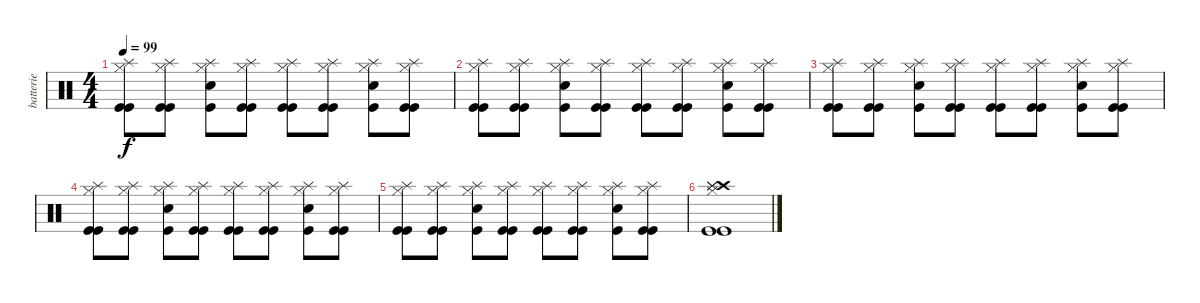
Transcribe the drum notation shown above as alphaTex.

\track ("batterie" "batterie") {instrument percussion}
\staff {score}
\articulation defaults
\ts (4 4)
\tempo 99
\clef neutral
\ks c
("Kick (hit)" "Splash (hit)" "Hi-Hat (closed)" "Kick (hit)").8{dy f} ("Kick (hit)" "Splash (hit)" "Hi-Hat (closed)" "Kick (hit)").8 ("Electric Snare (hit)" "Splash (hit)" "Hi-Hat (closed)" "Kick (hit)").8 ("Kick (hit)" "Splash (hit)" "Hi-Hat (closed)" "Kick (hit)").8 ("Kick (hit)" "Splash (hit)" "Hi-Hat (closed)" "Kick (hit)").8 ("Kick (hit)" "Splash (hit)" "Hi-Hat (closed)" "Kick (hit)").8 ("Electric Snare (hit)" "Splash (hit)" "Hi-Hat (closed)" "Kick (hit)").8 ("Kick (hit)" "Splash (hit)" "Hi-Hat (closed)" "Kick (hit)").8 |
("Kick (hit)" "Splash (hit)" "Hi-Hat (closed)" "Kick (hit)").8 ("Kick (hit)" "Splash (hit)" "Hi-Hat (closed)" "Kick (hit)").8 ("Electric Snare (hit)" "Splash (hit)" "Hi-Hat (closed)" "Kick (hit)").8 ("Kick (hit)" "Splash (hit)" "Hi-Hat (closed)" "Kick (hit)").8 ("Kick (hit)" "Splash (hit)" "Hi-Hat (closed)" "Kick (hit)").8 ("Kick (hit)" "Splash (hit)" "Hi-Hat (closed)" "Kick (hit)").8 ("Electric Snare (hit)" "Splash (hit)" "Hi-Hat (closed)" "Kick (hit)").8 ("Kick (hit)" "Splash (hit)" "Hi-Hat (closed)" "Kick (hit)").8 |
("Kick (hit)" "Splash (hit)" "Hi-Hat (closed)" "Kick (hit)").8 ("Kick (hit)" "Splash (hit)" "Hi-Hat (closed)" "Kick (hit)").8 ("Electric Snare (hit)" "Splash (hit)" "Hi-Hat (closed)" "Kick (hit)").8 ("Kick (hit)" "Splash (hit)" "Hi-Hat (closed)" "Kick (hit)").8 ("Kick (hit)" "Splash (hit)" "Hi-Hat (closed)" "Kick (hit)").8 ("Kick (hit)" "Splash (hit)" "Hi-Hat (closed)" "Kick (hit)").8 ("Electric Snare (hit)" "Splash (hit)" "Hi-Hat (closed)" "Kick (hit)").8 ("Kick (hit)" "Splash (hit)" "Hi-Hat (closed)" "Kick (hit)").8 |
("Kick (hit)" "Splash (hit)" "Hi-Hat (closed)" "Kick (hit)").8 ("Kick (hit)" "Splash (hit)" "Hi-Hat (closed)" "Kick (hit)").8 ("Electric Snare (hit)" "Splash (hit)" "Hi-Hat (closed)" "Kick (hit)").8 ("Kick (hit)" "Splash (hit)" "Hi-Hat (closed)" "Kick (hit)").8 ("Kick (hit)" "Splash (hit)" "Hi-Hat (closed)" "Kick (hit)").8 ("Kick (hit)" "Splash (hit)" "Hi-Hat (closed)" "Kick (hit)").8 ("Electric Snare (hit)" "Splash (hit)" "Hi-Hat (closed)" "Kick (hit)").8 ("Kick (hit)" "Splash (hit)" "Hi-Hat (closed)" "Kick (hit)").8 |
("Kick (hit)" "Splash (hit)" "Hi-Hat (closed)" "Kick (hit)").8 ("Kick (hit)" "Splash (hit)" "Hi-Hat (closed)" "Kick (hit)").8 ("Electric Snare (hit)" "Splash (hit)" "Hi-Hat (closed)" "Kick (hit)").8 ("Kick (hit)" "Splash (hit)" "Hi-Hat (closed)" "Kick (hit)").8 ("Kick (hit)" "Splash (hit)" "Hi-Hat (closed)" "Kick (hit)").8 ("Kick (hit)" "Splash (hit)" "Hi-Hat (closed)" "Kick (hit)").8 ("Electric Snare (hit)" "Splash (hit)" "Hi-Hat (closed)" "Kick (hit)").8 ("Kick (hit)" "Splash (hit)" "Hi-Hat (closed)" "Kick (hit)").8 |
("Kick (hit)" "Crash high (hit)" "Kick (hit)" "Splash (hit)" "Hi-Hat (closed)" "Splash (hit)").1
